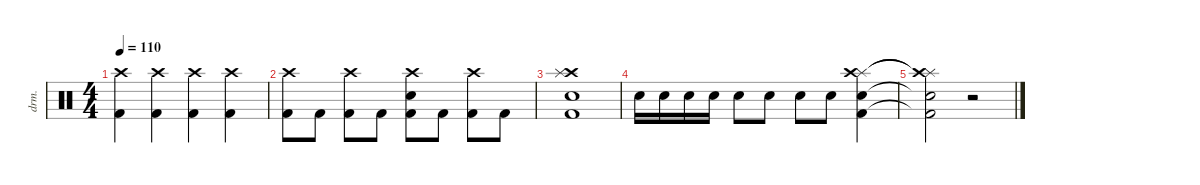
\defaultSystemsLayout 4
\hideDynamics
\bracketExtendMode nobrackets
\track ("Drumkit" "drm.") {instrument percussion}
\staff {score}
\articulation defaults
\ts (4 4)
\tempo 110
\clef neutral
\ks c
("Crash high (hit)" "Kick (hit) 2").4{dy mf beam Down} ("Crash high (hit)" "Kick (hit) 2").4{beam Down} ("Crash high (hit)" "Kick (hit) 2").4{beam Down} ("Crash high (hit)" "Kick (hit) 2").4{beam Down} |
("Crash high (hit)" "Kick (hit) 2").8{beam Down} "Kick (hit) 2".8{beam Down} ("Kick (hit) 2" "Crash high (hit)").8{beam Down} "Kick (hit) 2".8{beam Down} ("Crash high (hit)" "Snare (hit) 2" "Kick (hit) 2").8{beam Down} "Kick (hit) 2".8{beam Down} ("Kick (hit) 2" "Crash high (hit)").8{beam Down} "Kick (hit) 2".8{beam Down} |
("Kick (hit) 2" "Crash high (hit)" "Splash (hit)" "Snare (hit) 2").1{beam Down} |
"Snare (hit) 2".16{beam Down} "Snare (hit) 2".16{beam Down} "Snare (hit) 2".16{beam Down} "Snare (hit) 2".16{beam Down} "Snare (hit) 2".8{beam Down} "Snare (hit) 2".8{beam Down} "Snare (hit) 2".8{beam Down} "Snare (hit) 2".8{beam Down} ("Snare (hit) 2" "Splash (hit)" "Kick (hit) 2" "Crash high (hit)").4{beam Down} |
("Snare (hit) 2"{t} "Splash (hit)"{t} "Kick (hit) 2"{t} "Crash high (hit)"{t}).2{beam Down} r.2{beam Down}
